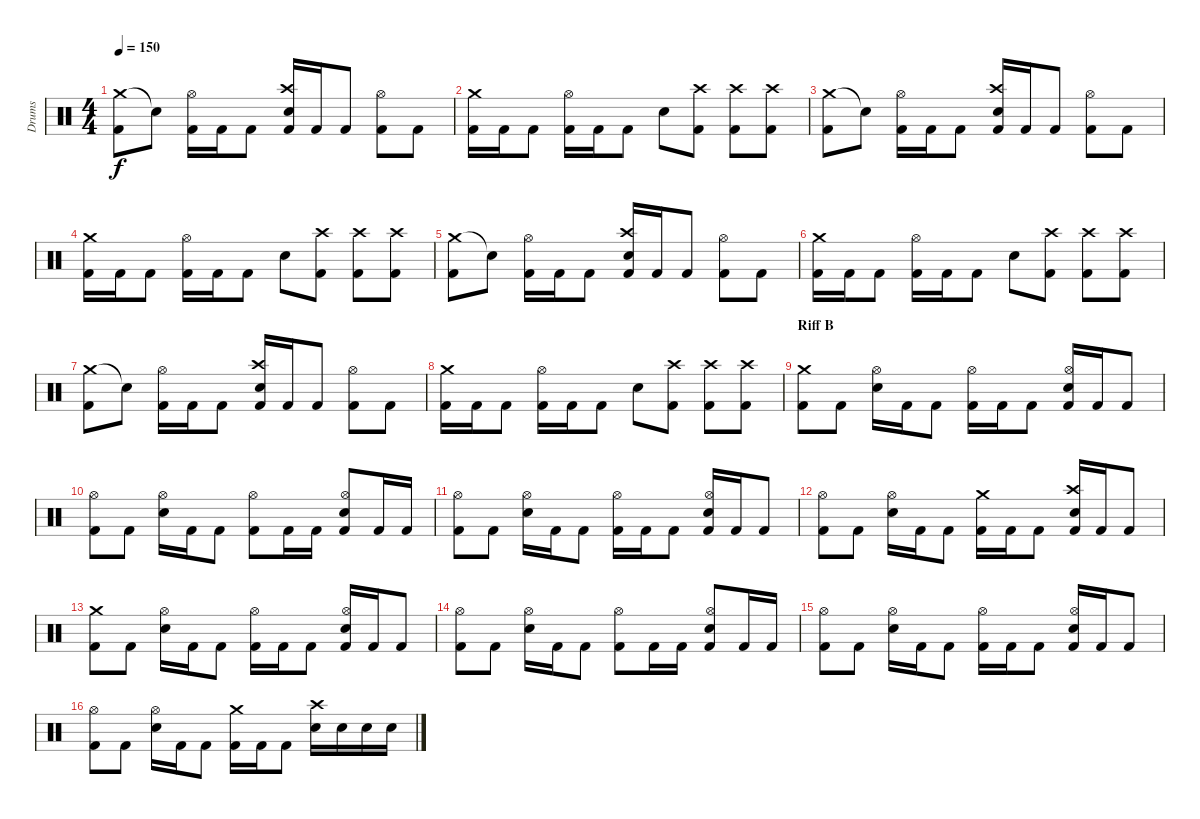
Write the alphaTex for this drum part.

\track ("Drums" "Drums") {instrument percussion}
\staff {score}
\articulation defaults
\ts (4 4)
\tempo 150
\clef neutral
\ks c
("Crash medium (hit)" "Kick (hit) 2").8{dy f} "Snare (hit)"{t}.8 ("Hi-Hat (open)" "Kick (hit) 2").16 "Kick (hit) 2".16 "Kick (hit) 2".8 ("Crash high (hit)" "Electric Snare (hit)" "Kick (hit) 2").16 "Kick (hit) 2".16 "Kick (hit) 2".8 ("Hi-Hat (open)" "Kick (hit) 2").8 "Kick (hit) 2".8 |
("Crash medium (hit)" "Kick (hit) 2").16 "Kick (hit) 2".16 "Kick (hit) 2".8 ("Hi-Hat (open)" "Kick (hit) 2").16 "Kick (hit) 2".16 "Kick (hit) 2".8 "Electric Snare (hit)".8 ("Crash high (hit)" "Kick (hit) 2").8 ("Crash high (hit)" "Kick (hit) 2").8 ("Crash high (hit)" "Kick (hit) 2").8 |
("Crash medium (hit)" "Kick (hit) 2").8 "Snare (hit)"{t}.8 ("Hi-Hat (open)" "Kick (hit) 2").16 "Kick (hit) 2".16 "Kick (hit) 2".8 ("Crash high (hit)" "Electric Snare (hit)" "Kick (hit) 2").16 "Kick (hit) 2".16 "Kick (hit) 2".8 ("Hi-Hat (open)" "Kick (hit) 2").8 "Kick (hit) 2".8 |
("Crash medium (hit)" "Kick (hit) 2").16 "Kick (hit) 2".16 "Kick (hit) 2".8 ("Hi-Hat (open)" "Kick (hit) 2").16 "Kick (hit) 2".16 "Kick (hit) 2".8 "Electric Snare (hit)".8 ("Crash high (hit)" "Kick (hit) 2").8 ("Crash high (hit)" "Kick (hit) 2").8 ("Crash high (hit)" "Kick (hit) 2").8 |
("Crash medium (hit)" "Kick (hit) 2").8 "Snare (hit)"{t}.8 ("Hi-Hat (open)" "Kick (hit) 2").16 "Kick (hit) 2".16 "Kick (hit) 2".8 ("Crash high (hit)" "Electric Snare (hit)" "Kick (hit) 2").16 "Kick (hit) 2".16 "Kick (hit) 2".8 ("Hi-Hat (open)" "Kick (hit) 2").8 "Kick (hit) 2".8 |
("Crash medium (hit)" "Kick (hit) 2").16 "Kick (hit) 2".16 "Kick (hit) 2".8 ("Hi-Hat (open)" "Kick (hit) 2").16 "Kick (hit) 2".16 "Kick (hit) 2".8 "Electric Snare (hit)".8 ("Crash high (hit)" "Kick (hit) 2").8 ("Crash high (hit)" "Kick (hit) 2").8 ("Crash high (hit)" "Kick (hit) 2").8 |
("Crash medium (hit)" "Kick (hit) 2").8 "Snare (hit)"{t}.8 ("Hi-Hat (open)" "Kick (hit) 2").16 "Kick (hit) 2".16 "Kick (hit) 2".8 ("Crash high (hit)" "Electric Snare (hit)" "Kick (hit) 2").16 "Kick (hit) 2".16 "Kick (hit) 2".8 ("Hi-Hat (open)" "Kick (hit) 2").8 "Kick (hit) 2".8 |
("Crash medium (hit)" "Kick (hit) 2").16 "Kick (hit) 2".16 "Kick (hit) 2".8 ("Hi-Hat (open)" "Kick (hit) 2").16 "Kick (hit) 2".16 "Kick (hit) 2".8 "Electric Snare (hit)".8 ("Crash high (hit)" "Kick (hit) 2").8 ("Crash high (hit)" "Kick (hit) 2").8 ("Crash high (hit)" "Kick (hit) 2").8 |
\section ("" "Riff B")
("Crash medium (hit)" "Kick (hit) 2").8 "Kick (hit) 2".8 ("Hi-Hat (open)" "Electric Snare (hit)").16 "Kick (hit) 2".16 "Kick (hit) 2".8 ("Hi-Hat (open)" "Kick (hit) 2").16 "Kick (hit) 2".16 "Kick (hit) 2".8 ("Hi-Hat (open)" "Electric Snare (hit)" "Kick (hit) 2").16 "Kick (hit) 2".16 "Kick (hit) 2".8 |
("Hi-Hat (open)" "Kick (hit) 2").8 "Kick (hit) 2".8 ("Hi-Hat (open)" "Electric Snare (hit)").16 "Kick (hit) 2".16 "Kick (hit) 2".8 ("Hi-Hat (open)" "Kick (hit) 2").8 "Kick (hit) 2".16 "Kick (hit) 2".16 ("Hi-Hat (open)" "Electric Snare (hit)" "Kick (hit) 2").8 "Kick (hit) 2".16 "Kick (hit) 2".16 |
("Hi-Hat (open)" "Kick (hit) 2").8 "Kick (hit) 2".8 ("Hi-Hat (open)" "Electric Snare (hit)").16 "Kick (hit) 2".16 "Kick (hit) 2".8 ("Hi-Hat (open)" "Kick (hit) 2").16 "Kick (hit) 2".16 "Kick (hit) 2".8 ("Hi-Hat (open)" "Electric Snare (hit)" "Kick (hit) 2").16 "Kick (hit) 2".16 "Kick (hit) 2".8 |
("Hi-Hat (open)" "Kick (hit) 2").8 "Kick (hit) 2".8 ("Hi-Hat (open)" "Electric Snare (hit)").16 "Kick (hit) 2".16 "Kick (hit) 2".8 ("Crash medium (hit)" "Kick (hit) 2").16 "Kick (hit) 2".16 "Kick (hit) 2".8 ("Crash high (hit)" "Electric Snare (hit)" "Kick (hit) 2").16 "Kick (hit) 2".16 "Kick (hit) 2".8 |
("Crash medium (hit)" "Kick (hit) 2").8 "Kick (hit) 2".8 ("Hi-Hat (open)" "Electric Snare (hit)").16 "Kick (hit) 2".16 "Kick (hit) 2".8 ("Hi-Hat (open)" "Kick (hit) 2").16 "Kick (hit) 2".16 "Kick (hit) 2".8 ("Hi-Hat (open)" "Electric Snare (hit)" "Kick (hit) 2").16 "Kick (hit) 2".16 "Kick (hit) 2".8 |
("Hi-Hat (open)" "Kick (hit) 2").8 "Kick (hit) 2".8 ("Hi-Hat (open)" "Electric Snare (hit)").16 "Kick (hit) 2".16 "Kick (hit) 2".8 ("Hi-Hat (open)" "Kick (hit) 2").8 "Kick (hit) 2".16 "Kick (hit) 2".16 ("Hi-Hat (open)" "Electric Snare (hit)" "Kick (hit) 2").8 "Kick (hit) 2".16 "Kick (hit) 2".16 |
("Hi-Hat (open)" "Kick (hit) 2").8 "Kick (hit) 2".8 ("Hi-Hat (open)" "Electric Snare (hit)").16 "Kick (hit) 2".16 "Kick (hit) 2".8 ("Hi-Hat (open)" "Kick (hit) 2").16 "Kick (hit) 2".16 "Kick (hit) 2".8 ("Hi-Hat (open)" "Electric Snare (hit)" "Kick (hit) 2").16 "Kick (hit) 2".16 "Kick (hit) 2".8 |
("Hi-Hat (open)" "Kick (hit) 2").8 "Kick (hit) 2".8 ("Hi-Hat (open)" "Electric Snare (hit)").16 "Kick (hit) 2".16 "Kick (hit) 2".8 ("Crash medium (hit)" "Kick (hit) 2").16 "Kick (hit) 2".16 "Kick (hit) 2".8 ("Crash high (hit)" "Electric Snare (hit)").16 "Electric Snare (hit)".16 "Electric Snare (hit)".16 "Electric Snare (hit)".16
